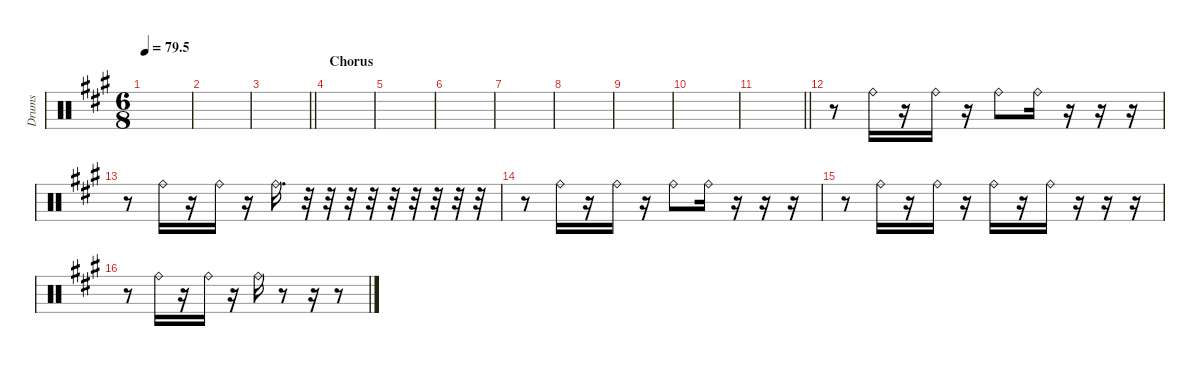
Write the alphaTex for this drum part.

\defaultSystemsLayout 4
\hideDynamics
\bracketExtendMode nobrackets
\otherSystemsTrackNameOrientation horizontal
\track ("Raid" "Drums") {instrument percussion}
\staff {score}
\articulation defaults
\ts (6 8)
\tempo
79.5
\accidentals auto
\clef neutral
\ottava regular
\simile none
\scale
0.333333
\ks a
|
\scale
0.333333 |
\scale
0.333333
\barLineRight lightlight
|
\section ("" "Chorus")
\scale
0.333333 |
\scale
0.333333 |
\scale
0.333333 |
\scale
0.333333 |
\scale
0.333333 |
\scale
0.333333 |
\scale
0.333333 |
\scale
0.333333
\barLineRight lightlight
|
\scale
0.333333 r.8 "Ride (bell)"{acc forcenatural}.16 r.16 "Ride (bell)"{acc forcenatural}.16 r.16 "Ride (bell)"{acc forcenatural}.8 "Ride (bell)"{acc forcenatural}.16 r.16 r.16 r.16 |
\scale
0.333333 r.8 "Ride (bell)"{acc forcenatural}.16 r.16 "Ride (bell)"{acc forcenatural}.16 r.16 "Ride (bell)"{acc forcenatural}.16{d} r.32 r.32 r.32 r.32 r.32 r.32 r.32 r.32 r.32 |
\scale
0.333333 r.8 "Ride (bell)"{acc forcenatural}.16 r.16 "Ride (bell)"{acc forcenatural}.16 r.16 "Ride (bell)"{acc forcenatural}.8 "Ride (bell)"{acc forcenatural}.16 r.16 r.16 r.16 |
\scale
0.333333 r.8 "Ride (bell)"{acc forcenatural}.16 r.16 "Ride (bell)"{acc forcenatural}.16 r.16 "Ride (bell)"{acc forcenatural}.16 r.16 "Ride (bell)"{acc forcenatural}.16 r.16 r.16 r.16 |
\scale
0.333333 r.8 "Ride (bell)"{acc forcenatural}.16 r.16 "Ride (bell)"{acc forcenatural}.16 r.16 "Ride (bell)"{acc forcenatural}.16 r.8 r.16 r.8
